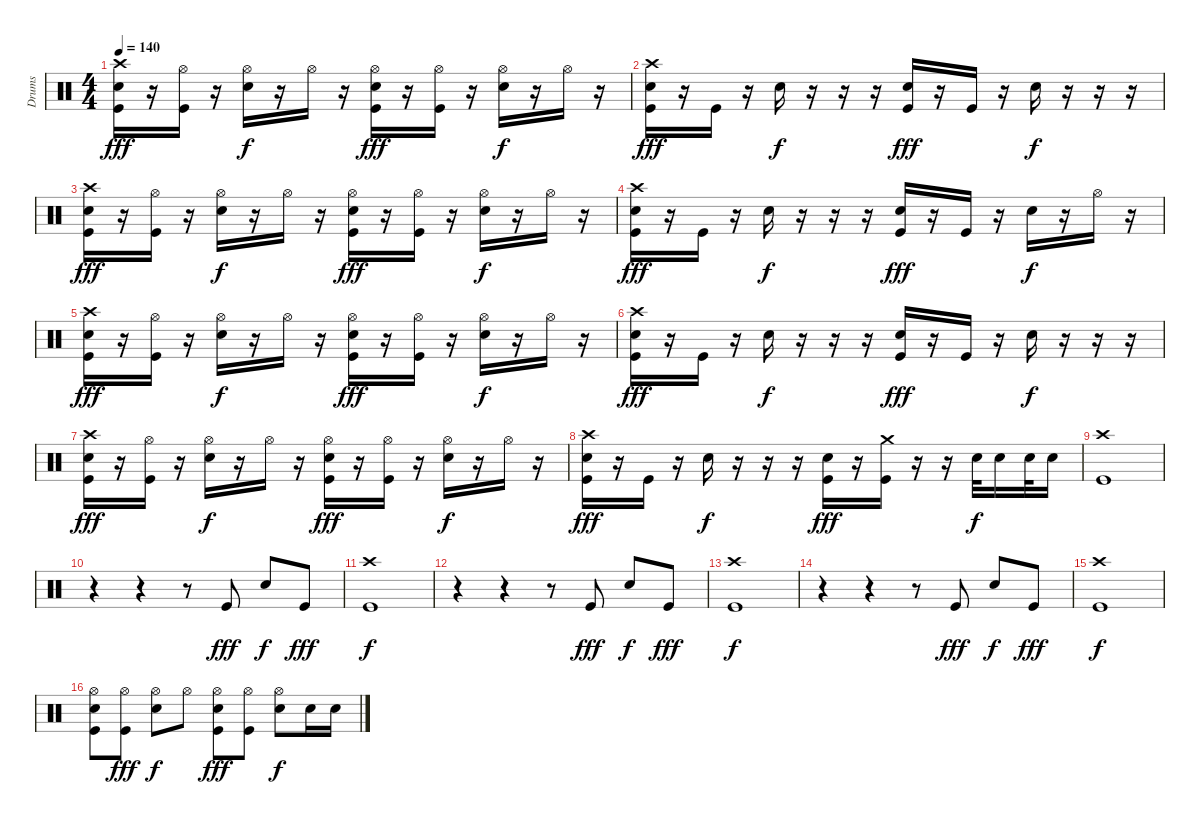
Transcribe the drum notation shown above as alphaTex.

\track ("Drums" "Drums") {instrument percussion}
\staff {score}
\articulation defaults
\ts (4 4)
\tempo 140
\clef neutral
\ks c
("Crash high (hit)" "Electric Snare (hit)" "Kick (hit)").16{dy fff} r.16 ("Hi-Hat (open)" "Kick (hit)").16 r.16 ("Hi-Hat (open)" "Electric Snare (hit)").16{dy f} r.16 "Hi-Hat (open)".16 r.16 ("Hi-Hat (open)" "Electric Snare (hit)" "Kick (hit)").16{dy fff} r.16 ("Hi-Hat (open)" "Kick (hit)").16 r.16 ("Hi-Hat (open)" "Electric Snare (hit)").16{dy f} r.16 "Hi-Hat (open)".16 r.16 |
("Crash high (hit)" "Electric Snare (hit)" "Kick (hit)").16{dy fff} r.16 "Kick (hit)".16 r.16 "Electric Snare (hit)".16{dy f} r.16 r.16 r.16 ("Electric Snare (hit)" "Kick (hit)").16{dy fff} r.16 "Kick (hit)".16 r.16 "Electric Snare (hit)".16{dy f} r.16 r.16 r.16 |
("Crash high (hit)" "Electric Snare (hit)" "Kick (hit)").16{dy fff} r.16 ("Hi-Hat (open)" "Kick (hit)").16 r.16 ("Hi-Hat (open)" "Electric Snare (hit)").16{dy f} r.16 "Hi-Hat (open)".16 r.16 ("Hi-Hat (open)" "Electric Snare (hit)" "Kick (hit)").16{dy fff} r.16 ("Hi-Hat (open)" "Kick (hit)").16 r.16 ("Hi-Hat (open)" "Electric Snare (hit)").16{dy f} r.16 "Hi-Hat (open)".16 r.16 |
("Crash high (hit)" "Electric Snare (hit)" "Kick (hit)").16{dy fff} r.16 "Kick (hit)".16 r.16 "Electric Snare (hit)".16{dy f} r.16 r.16 r.16 ("Electric Snare (hit)" "Kick (hit)").16{dy fff} r.16 "Kick (hit)".16 r.16 "Electric Snare (hit)".16{dy f} r.16 "Hi-Hat (open)".16 r.16 |
("Crash high (hit)" "Electric Snare (hit)" "Kick (hit)").16{dy fff} r.16 ("Hi-Hat (open)" "Kick (hit)").16 r.16 ("Hi-Hat (open)" "Electric Snare (hit)").16{dy f} r.16 "Hi-Hat (open)".16 r.16 ("Hi-Hat (open)" "Electric Snare (hit)" "Kick (hit)").16{dy fff} r.16 ("Hi-Hat (open)" "Kick (hit)").16 r.16 ("Hi-Hat (open)" "Electric Snare (hit)").16{dy f} r.16 "Hi-Hat (open)".16 r.16 |
("Crash high (hit)" "Electric Snare (hit)" "Kick (hit)").16{dy fff} r.16 "Kick (hit)".16 r.16 "Electric Snare (hit)".16{dy f} r.16 r.16 r.16 ("Electric Snare (hit)" "Kick (hit)").16{dy fff} r.16 "Kick (hit)".16 r.16 "Electric Snare (hit)".16{dy f} r.16 r.16 r.16 |
("Crash high (hit)" "Electric Snare (hit)" "Kick (hit)").16{dy fff} r.16 ("Hi-Hat (open)" "Kick (hit)").16 r.16 ("Hi-Hat (open)" "Electric Snare (hit)").16{dy f} r.16 "Hi-Hat (open)".16 r.16 ("Hi-Hat (open)" "Electric Snare (hit)" "Kick (hit)").16{dy fff} r.16 ("Hi-Hat (open)" "Kick (hit)").16 r.16 ("Hi-Hat (open)" "Electric Snare (hit)").16{dy f} r.16 "Hi-Hat (open)".16 r.16 |
("Crash high (hit)" "Electric Snare (hit)" "Kick (hit)").16{dy fff} r.16 "Kick (hit)".16 r.16 "Electric Snare (hit)".16{dy f} r.16 r.16 r.16 ("Electric Snare (hit)" "Kick (hit)").16{dy fff} r.16 ("Crash medium (hit)" "Kick (hit)").16 r.16 r.16 "Electric Snare (hit)".32{dy f} "Electric Snare (hit)".16 "Electric Snare (hit)".32 "Electric Snare (hit)".16 |
("Crash high (hit)" "Kick (hit)").1 |
r.4 r.4 r.8 "Kick (hit)".8{dy fff} "Electric Snare (hit)".8{dy f} "Kick (hit)".8{dy fff} |
("Crash high (hit)" "Kick (hit)").1{dy f} |
r.4 r.4 r.8 "Kick (hit)".8{dy fff} "Electric Snare (hit)".8{dy f} "Kick (hit)".8{dy fff} |
("Crash high (hit)" "Kick (hit)").1{dy f} |
r.4 r.4 r.8 "Kick (hit)".8{dy fff} "Electric Snare (hit)".8{dy f} "Kick (hit)".8{dy fff} |
("Crash high (hit)" "Kick (hit)").1{dy f} |
("Hi-Hat (open)" "Electric Snare (hit)" "Kick (hit)").8 ("Hi-Hat (open)" "Kick (hit)").8{dy fff} ("Hi-Hat (open)" "Electric Snare (hit)").8{dy f} "Hi-Hat (open)".8 ("Hi-Hat (open)" "Electric Snare (hit)" "Kick (hit)").8{dy fff} ("Hi-Hat (open)" "Kick (hit)").8 ("Hi-Hat (open)" "Electric Snare (hit)").8{dy f} "Electric Snare (hit)".16 "Electric Snare (hit)".16
